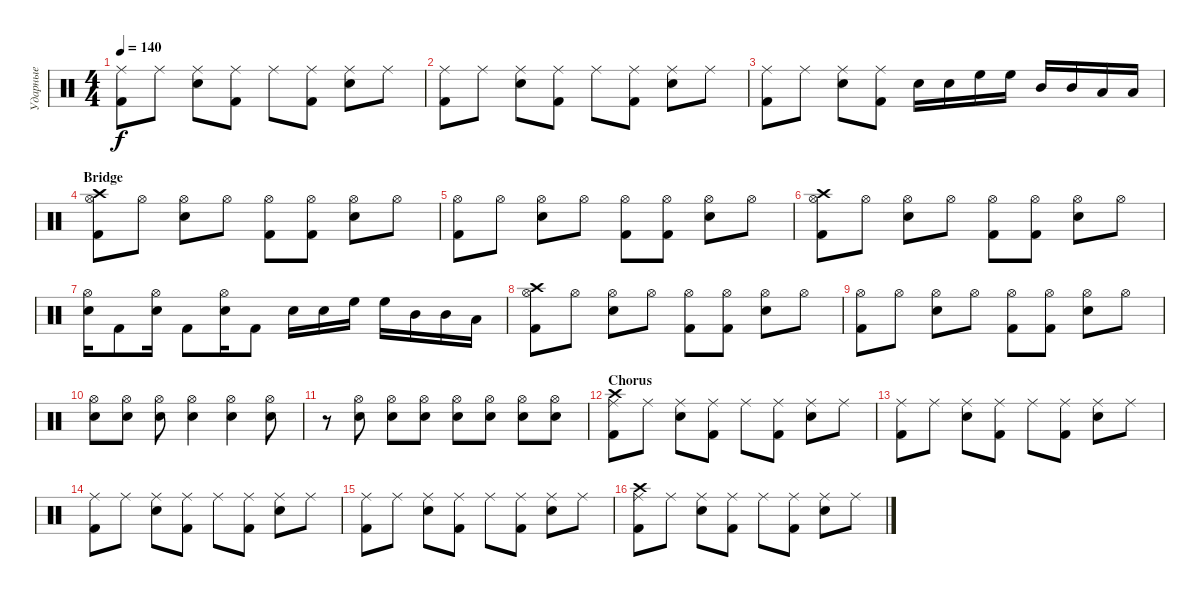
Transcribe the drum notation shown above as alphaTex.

\track ("Ударные" "Ударные") {instrument percussion}
\staff {score}
\articulation defaults
\ts (4 4)
\tempo 140
\clef neutral
\ks c
("Ride (middle)" "Kick (hit) 2").8{dy f} "Ride (middle)".8 ("Ride (middle)" "Snare (hit) 2").8 ("Ride (middle)" "Kick (hit) 2").8 "Ride (middle)".8 ("Ride (middle)" "Kick (hit) 2").8 ("Ride (middle)" "Snare (hit) 2").8 "Ride (middle)".8 |
("Ride (middle)" "Kick (hit) 2").8 "Ride (middle)".8 ("Ride (middle)" "Snare (hit) 2").8 ("Ride (middle)" "Kick (hit) 2").8 "Ride (middle)".8 ("Ride (middle)" "Kick (hit) 2").8 ("Ride (middle)" "Snare (hit) 2").8 "Ride (middle)".8 |
("Ride (middle)" "Kick (hit) 2").8 "Ride (middle)".8 ("Ride (middle)" "Snare (hit) 2").8 ("Ride (middle)" "Kick (hit) 2").8 "Snare (hit) 2".16 "Snare (hit) 2".16 "High Floor Tom (hit)".16 "High Floor Tom (hit)".16 "Mid Tom (hit)".16 "Mid Tom (hit)".16 "Low Tom (hit)".16 "Low Tom (hit)".16 |
\section ("" "Bridge")
("Hi-Hat (open)" "Crash high (hit)" "Kick (hit) 2").8 "Hi-Hat (open)".8 ("Hi-Hat (open)" "Snare (hit) 2").8 "Hi-Hat (open)".8 ("Hi-Hat (open)" "Kick (hit) 2").8 ("Hi-Hat (open)" "Kick (hit) 2").8 ("Hi-Hat (open)" "Snare (hit) 2").8 "Hi-Hat (open)".8 |
("Hi-Hat (open)" "Kick (hit) 2").8 "Hi-Hat (open)".8 ("Hi-Hat (open)" "Snare (hit) 2").8 "Hi-Hat (open)".8 ("Hi-Hat (open)" "Kick (hit) 2").8 ("Hi-Hat (open)" "Kick (hit) 2").8 ("Hi-Hat (open)" "Snare (hit) 2").8 "Hi-Hat (open)".8 |
("Hi-Hat (open)" "Crash high (hit)" "Kick (hit) 2").8 "Hi-Hat (open)".8 ("Hi-Hat (open)" "Snare (hit) 2").8 "Hi-Hat (open)".8 ("Hi-Hat (open)" "Kick (hit) 2").8 ("Hi-Hat (open)" "Kick (hit) 2").8 ("Hi-Hat (open)" "Snare (hit) 2").8 "Hi-Hat (open)".8 |
("Hi-Hat (open)" "Snare (hit) 2").16 "Kick (hit) 2".8 ("Hi-Hat (open)" "Snare (hit) 2").16 "Kick (hit) 2".8 ("Hi-Hat (open)" "Snare (hit) 2").16 "Kick (hit) 2".8 "Snare (hit) 2".16 "Snare (hit) 2".16 "High Floor Tom (hit)".16 "High Floor Tom (hit)".16 "Mid Tom (hit)".16 "Mid Tom (hit)".16 "Low Tom (hit)".16 |
("Hi-Hat (open)" "Crash high (hit)" "Kick (hit) 2").8 "Hi-Hat (open)".8 ("Hi-Hat (open)" "Snare (hit) 2").8 "Hi-Hat (open)".8 ("Hi-Hat (open)" "Kick (hit) 2").8 ("Hi-Hat (open)" "Kick (hit) 2").8 ("Hi-Hat (open)" "Snare (hit) 2").8 "Hi-Hat (open)".8 |
("Hi-Hat (open)" "Kick (hit) 2").8 "Hi-Hat (open)".8 ("Hi-Hat (open)" "Snare (hit) 2").8 "Hi-Hat (open)".8 ("Hi-Hat (open)" "Kick (hit) 2").8 ("Hi-Hat (open)" "Kick (hit) 2").8 ("Hi-Hat (open)" "Snare (hit) 2").8 "Hi-Hat (open)".8 |
("Hi-Hat (open)" "Snare (hit) 2").8 ("Hi-Hat (open)" "Snare (hit) 2").8 ("Hi-Hat (open)" "Snare (hit) 2").8 ("Hi-Hat (open)" "Snare (hit) 2").4 ("Hi-Hat (open)" "Snare (hit) 2").4 ("Hi-Hat (open)" "Snare (hit) 2").8 |
r.8 ("Hi-Hat (open)" "Snare (hit) 2").8 ("Hi-Hat (open)" "Snare (hit) 2").8 ("Hi-Hat (open)" "Snare (hit) 2").8 ("Hi-Hat (open)" "Snare (hit) 2").8 ("Hi-Hat (open)" "Snare (hit) 2").8 ("Hi-Hat (open)" "Snare (hit) 2").8 ("Hi-Hat (open)" "Snare (hit) 2").8 |
\section ("" "Chorus")
("Ride (middle)" "Crash high (hit)" "Kick (hit) 2").8 "Ride (middle)".8 ("Ride (middle)" "Snare (hit) 2").8 ("Ride (middle)" "Kick (hit) 2").8 "Ride (middle)".8 ("Ride (middle)" "Kick (hit) 2").8 ("Ride (middle)" "Snare (hit) 2").8 "Ride (middle)".8 |
("Ride (middle)" "Kick (hit) 2").8 "Ride (middle)".8 ("Ride (middle)" "Snare (hit) 2").8 ("Ride (middle)" "Kick (hit) 2").8 "Ride (middle)".8 ("Ride (middle)" "Kick (hit) 2").8 ("Ride (middle)" "Snare (hit) 2").8 "Ride (middle)".8 |
("Ride (middle)" "Kick (hit) 2").8 "Ride (middle)".8 ("Ride (middle)" "Snare (hit) 2").8 ("Ride (middle)" "Kick (hit) 2").8 "Ride (middle)".8 ("Ride (middle)" "Kick (hit) 2").8 ("Ride (middle)" "Snare (hit) 2").8 "Ride (middle)".8 |
("Ride (middle)" "Kick (hit) 2").8 "Ride (middle)".8 ("Ride (middle)" "Snare (hit) 2").8 ("Ride (middle)" "Kick (hit) 2").8 "Ride (middle)".8 ("Ride (middle)" "Kick (hit) 2").8 ("Ride (middle)" "Snare (hit) 2").8 "Ride (middle)".8 |
("Ride (middle)" "Crash high (hit)" "Kick (hit) 2").8 "Ride (middle)".8 ("Ride (middle)" "Snare (hit) 2").8 ("Ride (middle)" "Kick (hit) 2").8 "Ride (middle)".8 ("Ride (middle)" "Kick (hit) 2").8 ("Ride (middle)" "Snare (hit) 2").8 "Ride (middle)".8
